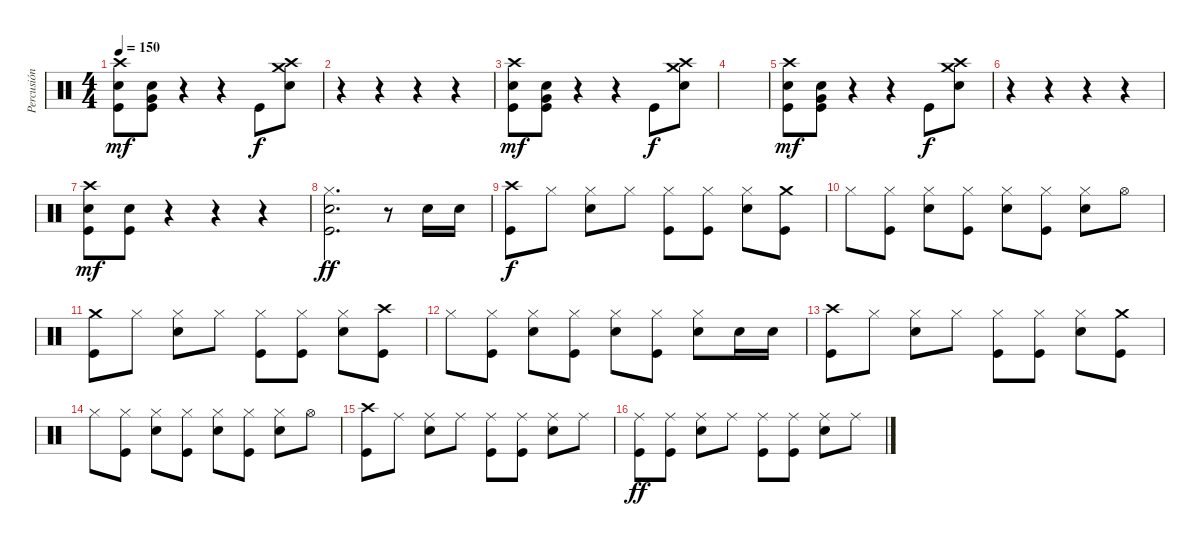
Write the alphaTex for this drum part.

\track ("Percusión" "Percusión") {instrument percussion}
\staff {score}
\articulation defaults
\ts (4 4)
\tempo 150
\clef neutral
\ks c
("Crash high (hit)" "Snare (hit) 2" "Kick (hit)").8{dy mf} ("Snare (hit) 2" "Very Low Tom (hit)" "Kick (hit)").8 r.4 r.4 "Kick (hit)".8{dy f} ("Crash high (hit)" "Snare (hit) 2" "Crash medium (hit)").8 |
r.4 r.4 r.4 r.4 |
("Crash high (hit)" "Snare (hit) 2" "Kick (hit)").8{dy mf} ("Snare (hit) 2" "Very Low Tom (hit)" "Kick (hit)").8 r.4 r.4 "Kick (hit)".8{dy f} ("Crash high (hit)" "Snare (hit) 2" "Crash medium (hit)").8 |
|
("Crash high (hit)" "Snare (hit) 2" "Kick (hit)").8{dy mf} ("Snare (hit) 2" "Very Low Tom (hit)" "Kick (hit)").8 r.4 r.4 "Kick (hit)".8{dy f} ("Crash high (hit)" "Snare (hit) 2" "Crash medium (hit)").8 |
r.4 r.4 r.4 r.4 |
("Snare (hit) 2" "Crash high (hit)" "Kick (hit)").8{dy mf} ("Snare (hit) 2" "Kick (hit)").8 r.4 r.4 r.4 |
("Hi-Hat (closed)" "Snare (hit) 2" "Kick (hit)").2{d dy ff} r.8 "Snare (hit) 2".16 "Snare (hit) 2".16 |
("Crash high (hit)" "Kick (hit)").8{dy f} "Hi-Hat (closed)".8 ("Hi-Hat (closed)" "Snare (hit) 2").8 "Hi-Hat (closed)".8 ("Hi-Hat (closed)" "Kick (hit)").8 ("Hi-Hat (closed)" "Kick (hit)").8 ("Hi-Hat (closed)" "Snare (hit) 2").8 ("Crash medium (hit)" "Kick (hit)").8 |
"Hi-Hat (closed)".8 ("Hi-Hat (closed)" "Kick (hit)").8 ("Hi-Hat (closed)" "Snare (hit) 2").8 ("Hi-Hat (closed)" "Kick (hit)").8 ("Hi-Hat (closed)" "Snare (hit) 2").8 ("Hi-Hat (closed)" "Kick (hit)").8 ("Hi-Hat (closed)" "Snare (hit) 2").8 "Hi-Hat (open)".8 |
("Crash medium (hit)" "Kick (hit)").8 "Hi-Hat (closed)".8 ("Hi-Hat (closed)" "Snare (hit) 2").8 "Hi-Hat (closed)".8 ("Hi-Hat (closed)" "Kick (hit)").8 ("Hi-Hat (closed)" "Kick (hit)").8 ("Hi-Hat (closed)" "Snare (hit) 2").8 ("Crash high (hit)" "Kick (hit)").8 |
"Hi-Hat (closed)".8 ("Hi-Hat (closed)" "Kick (hit)").8 ("Hi-Hat (closed)" "Snare (hit) 2").8 ("Hi-Hat (closed)" "Kick (hit)").8 ("Hi-Hat (closed)" "Snare (hit) 2").8 ("Hi-Hat (closed)" "Kick (hit)").8 ("Hi-Hat (closed)" "Snare (hit) 2").8 "Snare (hit) 2".16 "Snare (hit) 2".16 |
("Crash high (hit)" "Kick (hit)").8 "Hi-Hat (closed)".8 ("Hi-Hat (closed)" "Snare (hit) 2").8 "Hi-Hat (closed)".8 ("Hi-Hat (closed)" "Kick (hit)").8 ("Hi-Hat (closed)" "Kick (hit)").8 ("Hi-Hat (closed)" "Snare (hit) 2").8 ("Crash medium (hit)" "Kick (hit)").8 |
"Hi-Hat (closed)".8 ("Hi-Hat (closed)" "Kick (hit)").8 ("Hi-Hat (closed)" "Snare (hit) 2").8 ("Hi-Hat (closed)" "Kick (hit)").8 ("Hi-Hat (closed)" "Snare (hit) 2").8 ("Hi-Hat (closed)" "Kick (hit)").8 ("Hi-Hat (closed)" "Snare (hit) 2").8 "Hi-Hat (open)".8 |
("Crash high (hit)" "Kick (hit)").8 "Ride (middle)".8 ("Ride (middle)" "Snare (hit) 2").8 "Ride (middle)".8 ("Ride (middle)" "Kick (hit)").8 ("Ride (middle)" "Kick (hit)").8 ("Ride (middle)" "Snare (hit) 2").8 "Ride (middle)".8 |
("Ride (middle)" "Kick (hit)").8{dy ff} ("Ride (middle)" "Kick (hit)").8 ("Ride (middle)" "Snare (hit) 2").8 "Ride (middle)".8 ("Ride (middle)" "Kick (hit)").8 ("Ride (middle)" "Kick (hit)").8 ("Ride (middle)" "Snare (hit) 2").8 "Ride (middle)".8
